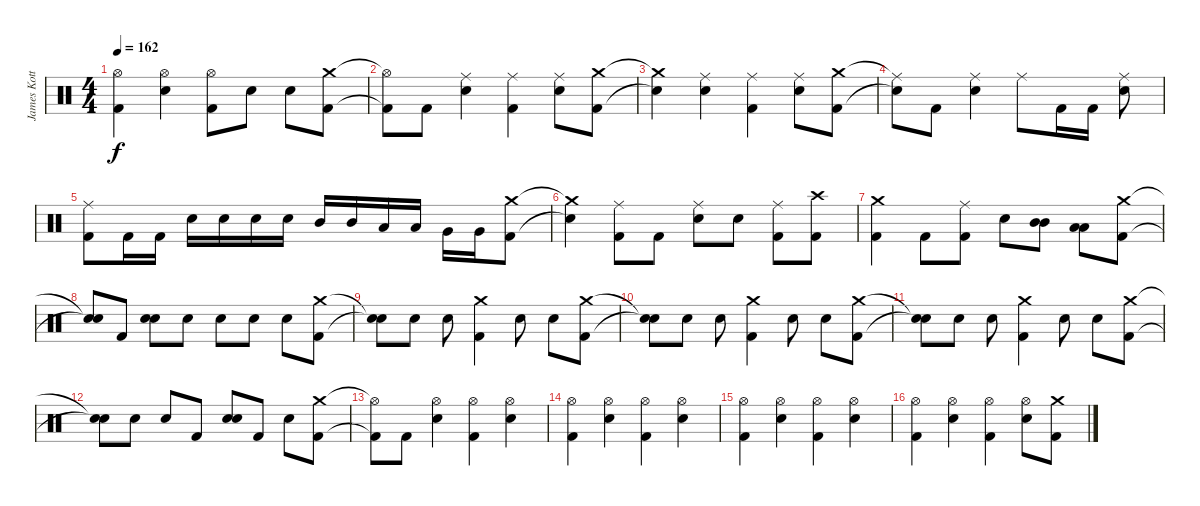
\track ("James Kottak" "James Kott") {instrument percussion}
\staff {score}
\articulation defaults
\ts (4 4)
\tempo 162
\clef neutral
\ks c
("Hi-Hat (open)" "Kick (hit) 2").4{dy f} ("Hi-Hat (open)" "Snare (hit) 2").4 ("Hi-Hat (open)" "Kick (hit) 2").8 "Snare (hit) 2".8 "Snare (hit) 2".8 ("Crash medium (hit)" "Kick (hit) 2").8 |
("Hi-Hat (open)"{t} "Kick (hit) 2"{t}).8 "Kick (hit) 2".8 ("Ride (middle)" "Snare (hit) 2").4 ("Ride (middle)" "Kick (hit) 2").4 ("Ride (middle)" "Snare (hit) 2").8 ("Crash medium (hit)" "Kick (hit) 2").8 |
("Crash medium (hit)"{t} "Snare (hit)"{t}).4 ("Ride (middle)" "Snare (hit) 2").4 ("Ride (middle)" "Kick (hit) 2").4 ("Ride (middle)" "Snare (hit) 2").8 ("Crash medium (hit)" "Kick (hit) 2").8 |
("Ride (middle)"{t} "Snare (hit)"{t}).8 "Kick (hit) 2".8 ("Ride (middle)" "Snare (hit) 2").4 "Ride (middle)".8 "Kick (hit) 2".16 "Kick (hit) 2".16 ("Ride (middle)" "Snare (hit) 2").8 |
("Ride (middle)" "Kick (hit) 2").8 "Kick (hit) 2".16 "Kick (hit) 2".16 "Snare (hit) 2".16 "Snare (hit) 2".16 "Snare (hit) 2".16 "Snare (hit) 2".16 "Mid Tom (hit)".16 "Mid Tom (hit)".16 "Low Tom (hit)".16 "Low Tom (hit)".16 "Very Low Tom (hit)".16 "Very Low Tom (hit)".16 ("Kick (hit) 2" "Crash medium (hit)").8 |
("Snare (hit)"{t} "Crash medium (hit)"{t}).4 ("Ride (middle)" "Kick (hit) 2").8 "Kick (hit) 2".8 ("Ride (middle)" "Snare (hit) 2").8 "Snare (hit) 2".8 ("Ride (middle)" "Kick (hit) 2").8 ("Crash high (hit)" "Kick (hit) 2").8 |
("Crash medium (hit)" "Kick (hit) 2").4 "Kick (hit) 2".8 ("Ride (middle)" "Kick (hit) 2").8 "Snare (hit) 2".8 ("Mid Tom (hit)" "Mid Tom (hit)").8{bd 120} ("Low Tom (hit)" "Low Tom (hit)").8{bd 120} ("Crash medium (hit)" "Kick (hit) 2").8 |
("Snare (hit)"{t} "Snare (hit)"{t}).8 "Kick (hit) 2".8 ("Snare (hit) 2" "Snare (hit) 2").8{bd 240} "Snare (hit) 2".8 "Snare (hit) 2".8 "Snare (hit) 2".8 "Snare (hit) 2".8 ("Kick (hit) 2" "Crash medium (hit)").8 |
("Snare (hit) 2"{t} "Snare (hit)"{t}).8 "Snare (hit) 2".8 "Snare (hit) 2".8 ("Crash medium (hit)" "Kick (hit) 2").4 "Snare (hit) 2".8 "Snare (hit) 2".8 ("Crash medium (hit)" "Kick (hit) 2").8 |
("Snare (hit)"{t} "Snare (hit) 2"{t}).8 "Snare (hit) 2".8 "Snare (hit) 2".8 ("Crash medium (hit)" "Kick (hit) 2").4 "Snare (hit) 2".8 "Snare (hit) 2".8 ("Crash medium (hit)" "Kick (hit) 2").8 |
("Snare (hit)"{t} "Snare (hit)"{t}).8 "Snare (hit) 2".8 "Snare (hit) 2".8 ("Crash medium (hit)" "Kick (hit) 2").4 "Snare (hit) 2".8 "Snare (hit) 2".8 ("Crash medium (hit)" "Kick (hit) 2").8 |
("Snare (hit)"{t} "Snare (hit) 2"{t}).8 "Snare (hit) 2".8 "Snare (hit) 2".8 "Kick (hit) 2".8 ("Snare (hit) 2" "Snare (hit) 2").8{bd 240} "Kick (hit) 2".8 "Snare (hit) 2".8 ("Crash medium (hit)" "Kick (hit) 2").8 |
("Hi-Hat (open)"{t} "Kick (hit) 2"{t}).8 "Kick (hit) 2".8 ("Hi-Hat (open)" "Snare (hit) 2").4 ("Hi-Hat (open)" "Kick (hit) 2").4 ("Hi-Hat (open)" "Snare (hit) 2").4 |
("Hi-Hat (open)" "Kick (hit) 2").4 ("Hi-Hat (open)" "Snare (hit) 2").4 ("Hi-Hat (open)" "Kick (hit) 2").4 ("Hi-Hat (open)" "Snare (hit) 2").4 |
("Hi-Hat (open)" "Kick (hit) 2").4 ("Hi-Hat (open)" "Snare (hit) 2").4 ("Hi-Hat (open)" "Kick (hit) 2").4 ("Hi-Hat (open)" "Snare (hit) 2").4 |
("Hi-Hat (open)" "Kick (hit) 2").4 ("Hi-Hat (open)" "Snare (hit) 2").4 ("Hi-Hat (open)" "Kick (hit) 2").4 ("Hi-Hat (open)" "Snare (hit) 2").8 ("Crash medium (hit)" "Kick (hit) 2").8
